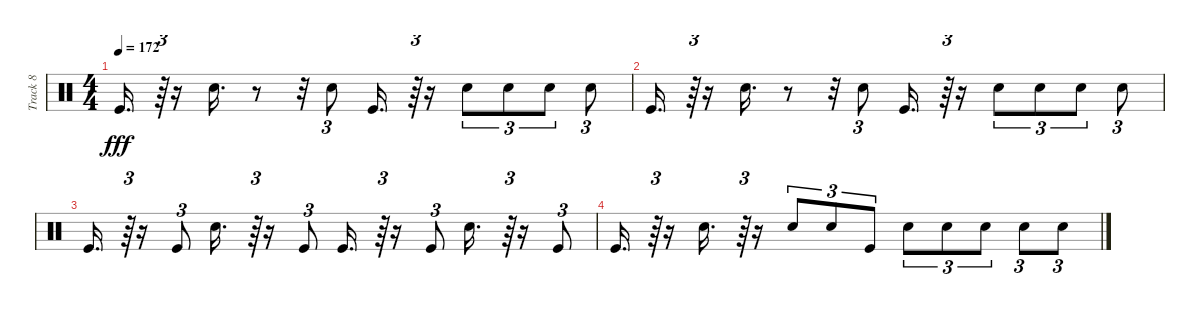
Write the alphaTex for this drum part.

\track ("Track 8" "Track 8") {instrument percussion}
\staff {score}
\articulation defaults
\ts (4 4)
\tempo 172
\clef neutral
\ks c "Kick (hit)".16{d dy fff}
r.64{tu (3 2)} r.16 "Snare (hit) 2".16{d} r.8 r.32 "Snare (hit) 2".8{tu (3 2)} "Kick (hit)".16{d} r.64{tu (3 2)} r.16 "Snare (hit) 2".8{tu (3 2)} "Snare (hit) 2".8{tu (3 2)} "Snare (hit) 2".8{tu (3 2)} "Snare (hit) 2".8{tu (3 2)} |
"Kick (hit)".16{d} r.64{tu (3 2)} r.16 "Snare (hit) 2".16{d} r.8 r.32 "Snare (hit) 2".8{tu (3 2)} "Kick (hit)".16{d} r.64{tu (3 2)} r.16 "Snare (hit) 2".8{tu (3 2)} "Snare (hit) 2".8{tu (3 2)} "Snare (hit) 2".8{tu (3 2)} "Snare (hit) 2".8{tu (3 2)} |
"Kick (hit)".16{d} r.64{tu (3 2)} r.16 "Kick (hit)".8{tu (3 2)} "Snare (hit) 2".16{d} r.64{tu (3 2)} r.16 "Kick (hit)".8{tu (3 2)} "Kick (hit)".16{d} r.64{tu (3 2)} r.16 "Kick (hit)".8{tu (3 2)} "Snare (hit) 2".16{d} r.64{tu (3 2)} r.16 "Kick (hit)".8{tu (3 2)} |
"Kick (hit)".16{d} r.64{tu (3 2)} r.16 "Snare (hit) 2".16{d} r.64{tu (3 2)} r.16 "Snare (hit) 2".8{tu (3 2)} "Snare (hit) 2".8{tu (3 2)} "Kick (hit)".8{tu (3 2)} "Snare (hit) 2".8{tu (3 2)} "Snare (hit) 2".8{tu (3 2)} "Snare (hit) 2".8{tu (3 2)} "Snare (hit) 2".8{tu (3 2)} "Snare (hit) 2".8{tu (3 2)}
